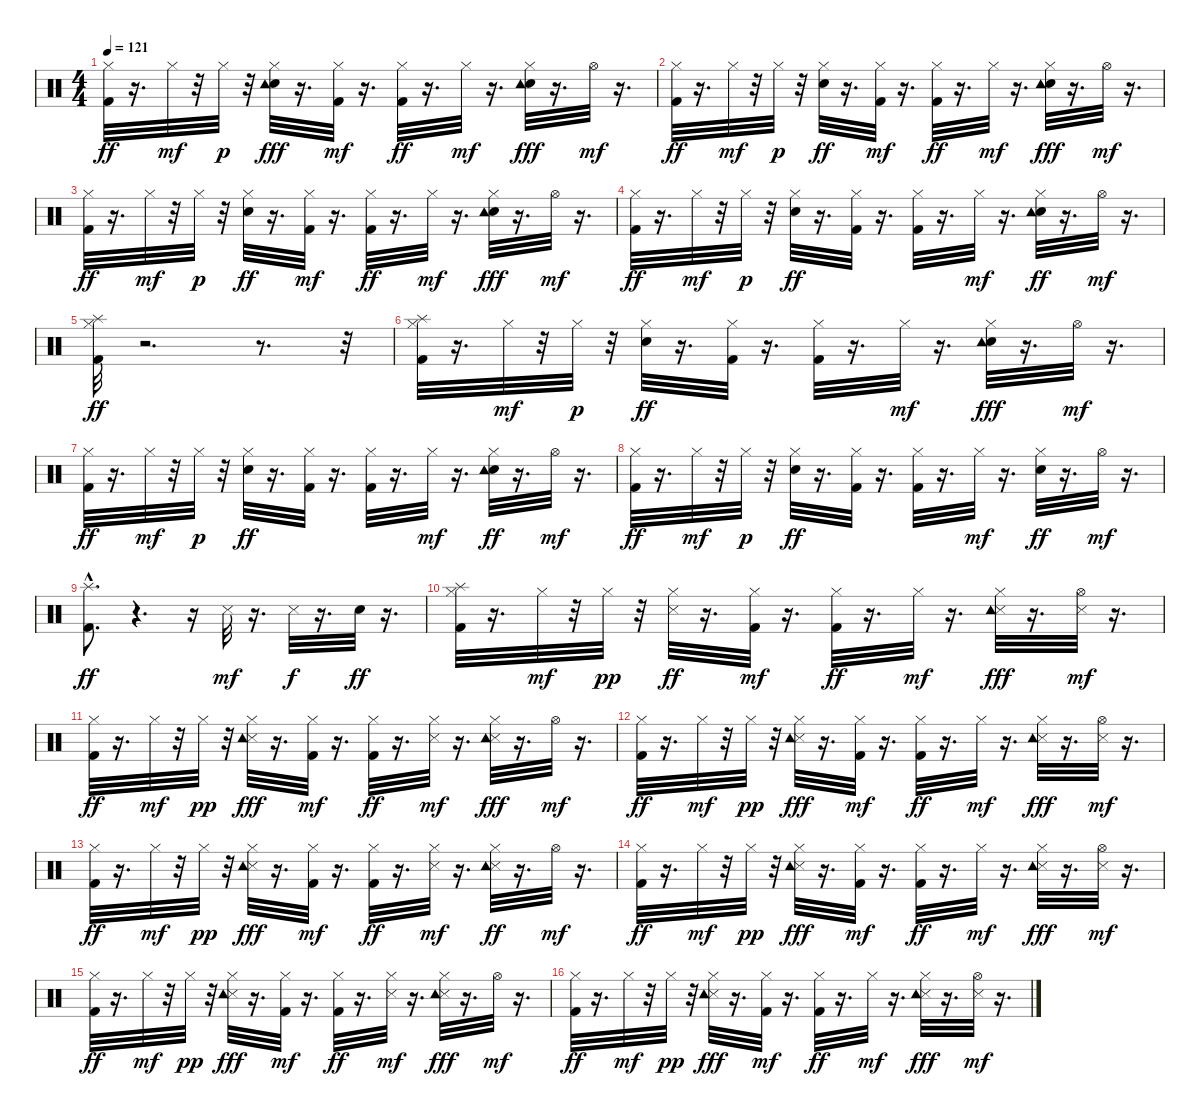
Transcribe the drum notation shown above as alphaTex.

\track "" {instrument percussion}
\staff {score}
\articulation defaults
\ts (4 4)
\tempo 121
\clef neutral
\ks c
("Hi-Hat (closed)" "Kick (hit) 2").32{dy ff} r.16{d} "Hi-Hat (closed)".32{dy mf} r.32 "Hi-Hat (closed)".32{dy p} r.32 ("Electric Snare (hit)" "Hi-Hat (closed)" "Tambourine (hit)").32{dy fff} r.16{d} ("Kick (hit) 2" "Hi-Hat (closed)").32{dy mf} r.16{d} ("Kick (hit) 2" "Hi-Hat (closed)").32{dy ff} r.16{d} "Hi-Hat (closed)".32{dy mf} r.16{d} ("Electric Snare (hit)" "Hi-Hat (closed)" "Tambourine (hit)").32{dy fff} r.16{d} "Hi-Hat (open)".32{dy mf} r.16{d} |
("Kick (hit) 2" "Hi-Hat (closed)").32{dy ff} r.16{d} "Hi-Hat (closed)".32{dy mf} r.32 "Hi-Hat (closed)".32{dy p} r.32 ("Electric Snare (hit)" "Hi-Hat (closed)").32{dy ff} r.16{d} ("Kick (hit) 2" "Hi-Hat (closed)").32{dy mf} r.16{d} ("Kick (hit) 2" "Hi-Hat (closed)").32{dy ff} r.16{d} "Hi-Hat (closed)".32{dy mf} r.16{d} ("Electric Snare (hit)" "Hi-Hat (closed)" "Tambourine (hit)").32{dy fff} r.16{d} "Hi-Hat (open)".32{dy mf} r.16{d} |
("Kick (hit) 2" "Hi-Hat (closed)").32{dy ff} r.16{d} "Hi-Hat (closed)".32{dy mf} r.32 "Hi-Hat (closed)".32{dy p} r.32 ("Electric Snare (hit)" "Hi-Hat (closed)").32{dy ff} r.16{d} ("Kick (hit) 2" "Hi-Hat (closed)").32{dy mf} r.16{d} ("Kick (hit) 2" "Hi-Hat (closed)").32{dy ff} r.16{d} "Hi-Hat (closed)".32{dy mf} r.16{d} ("Electric Snare (hit)" "Hi-Hat (closed)" "Tambourine (hit)").32{dy fff} r.16{d} "Hi-Hat (open)".32{dy mf} r.16{d} |
("Kick (hit) 2" "Hi-Hat (closed)").32{dy ff} r.16{d} "Hi-Hat (closed)".32{dy mf} r.32 "Hi-Hat (closed)".32{dy p} r.32 ("Electric Snare (hit)" "Hi-Hat (closed)").32{dy ff} r.16{d} ("Hi-Hat (closed)" "Kick (hit) 2").32 r.16{d} ("Kick (hit) 2" "Hi-Hat (closed)").32 r.16{d} "Hi-Hat (closed)".32{dy mf} r.16{d} ("Electric Snare (hit)" "Hi-Hat (closed)" "Tambourine (hit)").32{dy ff} r.16{d} "Hi-Hat (open)".32{dy mf} r.16{d} |
("Kick (hit) 2" "Hi-Hat (closed)" "Splash (hit)").32{dy ff} r.2{d} r.8{d} r.32 |
("Kick (hit) 2" "Hi-Hat (closed)" "Splash (hit)").32 r.16{d} "Hi-Hat (closed)".32{dy mf} r.32 "Hi-Hat (closed)".32{dy p} r.32 ("Electric Snare (hit)" "Hi-Hat (closed)").32{dy ff} r.16{d} ("Hi-Hat (closed)" "Kick (hit) 2").32 r.16{d} ("Kick (hit) 2" "Hi-Hat (closed)").32 r.16{d} "Hi-Hat (closed)".32{dy mf} r.16{d} ("Electric Snare (hit)" "Hi-Hat (closed)" "Tambourine (hit)").32{dy fff} r.16{d} "Hi-Hat (open)".32{dy mf} r.16{d} |
("Kick (hit) 2" "Hi-Hat (closed)").32{dy ff} r.16{d} "Hi-Hat (closed)".32{dy mf} r.32 "Hi-Hat (closed)".32{dy p} r.32 ("Electric Snare (hit)" "Hi-Hat (closed)").32{dy ff} r.16{d} ("Hi-Hat (closed)" "Kick (hit) 2").32 r.16{d} ("Hi-Hat (closed)" "Kick (hit) 2").32 r.16{d} "Hi-Hat (closed)".32{dy mf} r.16{d} ("Electric Snare (hit)" "Hi-Hat (closed)" "Tambourine (hit)").32{dy ff} r.16{d} "Hi-Hat (open)".32{dy mf} r.16{d} |
("Kick (hit) 2" "Hi-Hat (closed)").32{dy ff} r.16{d} "Hi-Hat (closed)".32{dy mf} r.32 "Hi-Hat (closed)".32{dy p} r.32 ("Electric Snare (hit)" "Hi-Hat (closed)").32{dy ff} r.16{d} ("Hi-Hat (closed)" "Kick (hit) 2").32 r.16{d} ("Hi-Hat (closed)" "Kick (hit) 2").32 r.16{d} "Hi-Hat (closed)".32{dy mf} r.16{d} ("Electric Snare (hit)" "Hi-Hat (closed)").32{dy ff} r.16{d} "Hi-Hat (open)".32{dy mf} r.16{d} |
("Kick (hit) 2"{hac} "Splash (hit)").8{d dy ff} r.4{d} r.16 "Snare (side stick) 3".32{dy mf} r.16{d} "Snare (side stick) 3".32{dy f} r.16{d} "Electric Snare (hit)".32{dy ff} r.16{d} |
("Hi-Hat (closed)" "Kick (hit) 2" "Splash (hit)").32 r.16{d} "Hi-Hat (closed)".32{dy mf} r.32 "Hi-Hat (closed)".32{dy pp} r.32 ("Snare (side stick) 3" "Hi-Hat (closed)").32{dy ff} r.16{d} ("Kick (hit) 2" "Hi-Hat (closed)").32{dy mf} r.16{d} ("Hi-Hat (closed)" "Kick (hit) 2").32{dy ff} r.16{d} "Hi-Hat (closed)".32{dy mf} r.16{d} ("Snare (side stick) 3" "Hi-Hat (closed)" "Tambourine (hit)").32{dy fff} r.16{d} ("Snare (side stick) 3" "Hi-Hat (open)").32{dy mf} r.16{d} |
("Kick (hit) 2" "Hi-Hat (closed)").32{dy ff} r.16{d} "Hi-Hat (closed)".32{dy mf} r.32 "Hi-Hat (closed)".32{dy pp} r.32 ("Snare (side stick) 3" "Hi-Hat (closed)" "Tambourine (hit)").32{dy fff} r.16{d} ("Kick (hit) 2" "Hi-Hat (closed)").32{dy mf} r.16{d} ("Kick (hit) 2" "Hi-Hat (closed)").32{dy ff} r.16{d} ("Snare (side stick) 3" "Hi-Hat (closed)").32{dy mf} r.16{d} ("Snare (side stick) 3" "Hi-Hat (closed)" "Tambourine (hit)").32{dy fff} r.16{d} "Hi-Hat (open)".32{dy mf} r.16{d} |
("Kick (hit) 2" "Hi-Hat (closed)").32{dy ff} r.16{d} "Hi-Hat (closed)".32{dy mf} r.32 "Hi-Hat (closed)".32{dy pp} r.32 ("Snare (side stick) 3" "Hi-Hat (closed)" "Tambourine (hit)").32{dy fff} r.16{d} ("Kick (hit) 2" "Hi-Hat (closed)").32{dy mf} r.16{d} ("Kick (hit) 2" "Hi-Hat (closed)").32{dy ff} r.16{d} "Hi-Hat (closed)".32{dy mf} r.16{d} ("Snare (side stick) 3" "Hi-Hat (closed)" "Tambourine (hit)").32{dy fff} r.16{d} ("Snare (side stick) 3" "Hi-Hat (open)").32{dy mf} r.16{d} |
("Kick (hit) 2" "Hi-Hat (closed)").32{dy ff} r.16{d} "Hi-Hat (closed)".32{dy mf} r.32 "Hi-Hat (closed)".32{dy pp} r.32 ("Snare (side stick) 3" "Hi-Hat (closed)" "Tambourine (hit)").32{dy fff} r.16{d} ("Kick (hit) 2" "Hi-Hat (closed)").32{dy mf} r.16{d} ("Kick (hit) 2" "Hi-Hat (closed)").32{dy ff} r.16{d} ("Snare (side stick) 3" "Hi-Hat (closed)").32{dy mf} r.16{d} ("Snare (side stick) 3" "Hi-Hat (closed)" "Tambourine (hit)").32{dy ff} r.16{d} "Hi-Hat (open)".32{dy mf} r.16{d} |
("Kick (hit) 2" "Hi-Hat (closed)").32{dy ff} r.16{d} "Hi-Hat (closed)".32{dy mf} r.32 "Hi-Hat (closed)".32{dy pp} r.32 ("Snare (side stick) 3" "Hi-Hat (closed)" "Tambourine (hit)").32{dy fff} r.16{d} ("Kick (hit) 2" "Hi-Hat (closed)").32{dy mf} r.16{d} ("Kick (hit) 2" "Hi-Hat (closed)").32{dy ff} r.16{d} "Hi-Hat (closed)".32{dy mf} r.16{d} ("Snare (side stick) 3" "Hi-Hat (closed)" "Tambourine (hit)").32{dy fff} r.16{d} ("Snare (side stick) 3" "Hi-Hat (open)").32{dy mf} r.16{d} |
("Kick (hit) 2" "Hi-Hat (closed)").32{dy ff} r.16{d} "Hi-Hat (closed)".32{dy mf} r.32 "Hi-Hat (closed)".32{dy pp} r.32 ("Snare (side stick) 3" "Hi-Hat (closed)" "Tambourine (hit)").32{dy fff} r.16{d} ("Kick (hit) 2" "Hi-Hat (closed)").32{dy mf} r.16{d} ("Kick (hit) 2" "Hi-Hat (closed)").32{dy ff} r.16{d} ("Snare (side stick) 3" "Hi-Hat (closed)").32{dy mf} r.16{d} ("Snare (side stick) 3" "Hi-Hat (closed)" "Tambourine (hit)").32{dy fff} r.16{d} "Hi-Hat (open)".32{dy mf} r.16{d} |
("Kick (hit) 2" "Hi-Hat (closed)").32{dy ff} r.16{d} "Hi-Hat (closed)".32{dy mf} r.32 "Hi-Hat (closed)".32{dy pp} r.32 ("Snare (side stick) 3" "Hi-Hat (closed)" "Tambourine (hit)").32{dy fff} r.16{d} ("Kick (hit) 2" "Hi-Hat (closed)").32{dy mf} r.16{d} ("Kick (hit) 2" "Hi-Hat (closed)").32{dy ff} r.16{d} "Hi-Hat (closed)".32{dy mf} r.16{d} ("Snare (side stick) 3" "Hi-Hat (closed)" "Tambourine (hit)").32{dy fff} r.16{d} ("Snare (side stick) 3" "Hi-Hat (open)").32{dy mf} r.16{d}
